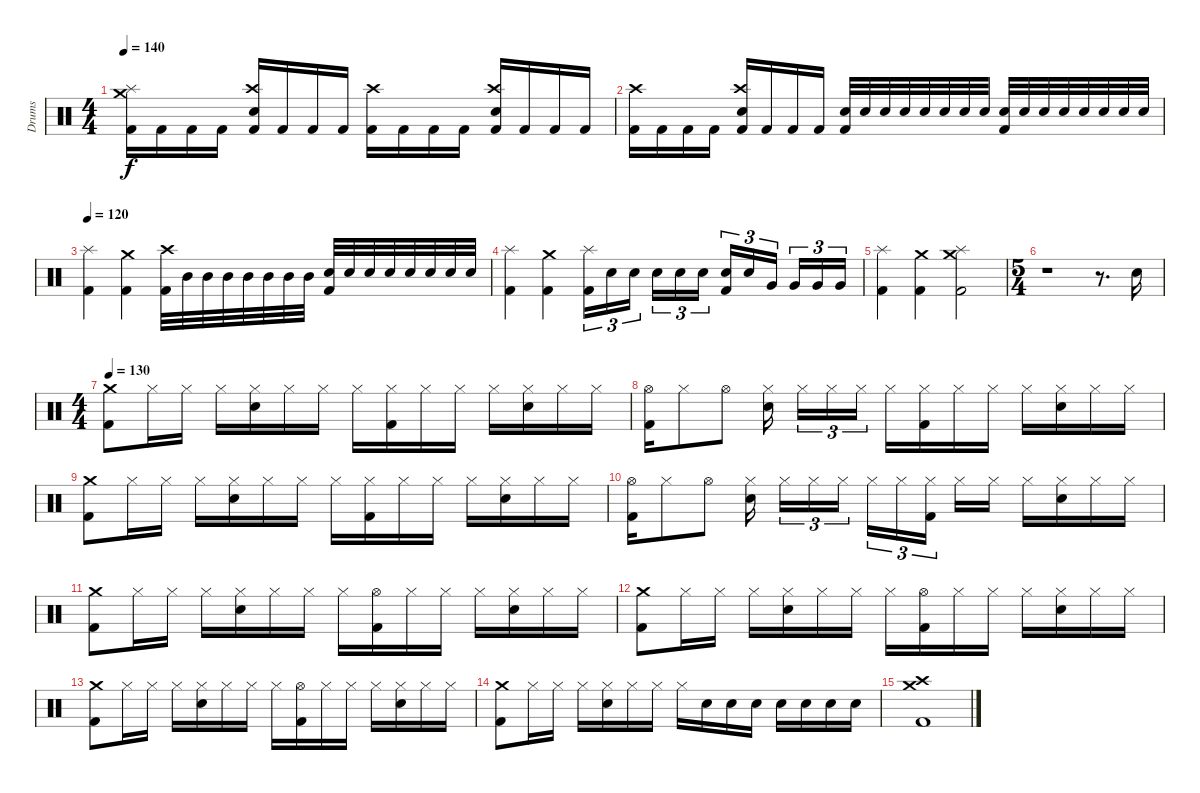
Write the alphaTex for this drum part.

\track ("Drums" "Drums") {instrument percussion}
\staff {score}
\articulation defaults
\ts (4 4)
\tempo 140
\clef neutral
\ks c
("Crash medium (hit)" "Splash (hit)" "Kick (hit) 2").16{dy f} "Kick (hit) 2".16 "Kick (hit) 2".16 "Kick (hit) 2".16 ("Crash high (hit)" "Electric Snare (hit)" "Kick (hit) 2").16 "Kick (hit) 2".16 "Kick (hit) 2".16 "Kick (hit) 2".16 ("Crash high (hit)" "Kick (hit) 2").16 "Kick (hit) 2".16 "Kick (hit) 2".16 "Kick (hit) 2".16 ("Crash high (hit)" "Electric Snare (hit)" "Kick (hit) 2").16 "Kick (hit) 2".16 "Kick (hit) 2".16 "Kick (hit) 2".16 |
("Crash high (hit)" "Kick (hit) 2").16 "Kick (hit) 2".16 "Kick (hit) 2".16 "Kick (hit) 2".16 ("Crash high (hit)" "Electric Snare (hit)" "Kick (hit) 2").16 "Kick (hit) 2".16 "Kick (hit) 2".16 "Kick (hit) 2".16 ("Electric Snare (hit)" "Kick (hit) 2").32 "Electric Snare (hit)".32 "Electric Snare (hit)".32 "Electric Snare (hit)".32 "Electric Snare (hit)".32 "Electric Snare (hit)".32 "Electric Snare (hit)".32 "Electric Snare (hit)".32 ("Electric Snare (hit)" "Kick (hit) 2").32 "Electric Snare (hit)".32 "Electric Snare (hit)".32 "Electric Snare (hit)".32 "Electric Snare (hit)".32 "Electric Snare (hit)".32 "Electric Snare (hit)".32 "Electric Snare (hit)".32 |
\tempo 120
("Splash (hit)" "Kick (hit) 2").4 ("Crash medium (hit)" "Kick (hit) 2").4 ("Crash high (hit)" "Kick (hit) 2").32 "Mid Tom (hit)".32 "Mid Tom (hit)".32 "Mid Tom (hit)".32 "Mid Tom (hit)".32 "Mid Tom (hit)".32 "Mid Tom (hit)".32 "Mid Tom (hit)".32 ("Electric Snare (hit)" "Kick (hit) 2").32 "Electric Snare (hit)".32 "Electric Snare (hit)".32 "Electric Snare (hit)".32 "Electric Snare (hit)".32 "Electric Snare (hit)".32 "Electric Snare (hit)".32 "Electric Snare (hit)".32 |
("Splash (hit)" "Kick (hit) 2").4 ("Crash medium (hit)" "Kick (hit) 2").4 ("Splash (hit)" "Kick (hit) 2").16{tu (3 2)} "Electric Snare (hit)".16{tu (3 2)} "Electric Snare (hit)".16{tu (3 2) beam splitsecondary} "Electric Snare (hit)".16{tu (3 2)} "Electric Snare (hit)".16{tu (3 2)} "Electric Snare (hit)".16{tu (3 2)} ("Electric Snare (hit)" "Kick (hit) 2").16{tu (3 2)} "Electric Snare (hit)".16{tu (3 2)} "Very Low Tom (hit)".16{tu (3 2) beam splitsecondary} "Very Low Tom (hit)".16{tu (3 2)} "Very Low Tom (hit)".16{tu (3 2)} "Very Low Tom (hit)".16{tu (3 2)} |
("Splash (hit)" "Kick (hit) 2").4 ("Crash medium (hit)" "Kick (hit) 2").4 ("Crash medium (hit)" "Splash (hit)" "Kick (hit) 2").2 |
\ts (5 4)
r.1 r.8{d} "Electric Snare (hit)".16 |
\ts (4 4)
\tempo 130
("Crash medium (hit)" "Kick (hit) 2").8 "Hi-Hat (closed)".16 "Hi-Hat (closed)".16 "Hi-Hat (closed)".16 ("Hi-Hat (closed)" "Electric Snare (hit)").16 "Hi-Hat (closed)".16 "Hi-Hat (closed)".16 "Hi-Hat (closed)".16 ("Hi-Hat (closed)" "Kick (hit) 2").16 "Hi-Hat (closed)".16 "Hi-Hat (closed)".16 "Hi-Hat (closed)".16 ("Hi-Hat (closed)" "Electric Snare (hit)").16 "Hi-Hat (closed)".16 "Hi-Hat (closed)".16 |
("Hi-Hat (open)" "Kick (hit) 2").16 "Hi-Hat (closed)".8 "Hi-Hat (open)".8 ("Hi-Hat (closed)" "Electric Snare (hit)").16{beam splitsecondary} "Hi-Hat (closed)".16{tu (3 2)} "Hi-Hat (closed)".16{tu (3 2)} "Hi-Hat (closed)".16{tu (3 2)} "Hi-Hat (closed)".16 ("Hi-Hat (closed)" "Kick (hit) 2").16 "Hi-Hat (closed)".16 "Hi-Hat (closed)".16 "Hi-Hat (closed)".16 ("Hi-Hat (closed)" "Electric Snare (hit)").16 "Hi-Hat (closed)".16 "Hi-Hat (closed)".16 |
("Crash medium (hit)" "Kick (hit) 2").8 "Hi-Hat (closed)".16 "Hi-Hat (closed)".16 "Hi-Hat (closed)".16 ("Hi-Hat (closed)" "Electric Snare (hit)").16 "Hi-Hat (closed)".16 "Hi-Hat (closed)".16 "Hi-Hat (closed)".16 ("Hi-Hat (closed)" "Kick (hit) 2").16 "Hi-Hat (closed)".16 "Hi-Hat (closed)".16 "Hi-Hat (closed)".16 ("Hi-Hat (closed)" "Electric Snare (hit)").16 "Hi-Hat (closed)".16 "Hi-Hat (closed)".16 |
("Hi-Hat (open)" "Kick (hit) 2").16 "Hi-Hat (closed)".8 "Hi-Hat (open)".8 ("Hi-Hat (closed)" "Electric Snare (hit)").16{beam splitsecondary} "Hi-Hat (closed)".16{tu (3 2)} "Hi-Hat (closed)".16{tu (3 2)} "Hi-Hat (closed)".16{tu (3 2)} "Hi-Hat (closed)".16{tu (3 2)} "Hi-Hat (closed)".16{tu (3 2)} ("Hi-Hat (closed)" "Kick (hit) 2").16{tu (3 2) beam splitsecondary} "Hi-Hat (closed)".16 "Hi-Hat (closed)".16 "Hi-Hat (closed)".16 ("Hi-Hat (closed)" "Electric Snare (hit)").16 "Hi-Hat (closed)".16 "Hi-Hat (closed)".16 |
("Crash medium (hit)" "Kick (hit) 2").8 "Hi-Hat (closed)".16 "Hi-Hat (closed)".16 "Hi-Hat (closed)".16 ("Hi-Hat (closed)" "Electric Snare (hit)").16 "Hi-Hat (closed)".16 "Hi-Hat (closed)".16 "Hi-Hat (closed)".16 ("Hi-Hat (open)" "Kick (hit) 2").16 "Hi-Hat (closed)".16 "Hi-Hat (closed)".16 "Hi-Hat (closed)".16 ("Hi-Hat (closed)" "Electric Snare (hit)").16 "Hi-Hat (closed)".16 "Hi-Hat (closed)".16 |
("Crash medium (hit)" "Kick (hit) 2").8 "Hi-Hat (closed)".16 "Hi-Hat (closed)".16 "Hi-Hat (closed)".16 ("Hi-Hat (closed)" "Electric Snare (hit)").16 "Hi-Hat (closed)".16 "Hi-Hat (closed)".16 "Hi-Hat (closed)".16 ("Hi-Hat (open)" "Kick (hit) 2").16 "Hi-Hat (closed)".16 "Hi-Hat (closed)".16 "Hi-Hat (closed)".16 ("Hi-Hat (closed)" "Electric Snare (hit)").16 "Hi-Hat (closed)".16 "Hi-Hat (closed)".16 |
("Crash medium (hit)" "Kick (hit) 2").8 "Hi-Hat (closed)".16 "Hi-Hat (closed)".16 "Hi-Hat (closed)".16 ("Hi-Hat (closed)" "Electric Snare (hit)").16 "Hi-Hat (closed)".16 "Hi-Hat (closed)".16 "Hi-Hat (closed)".16 ("Hi-Hat (open)" "Kick (hit) 2").16 "Hi-Hat (closed)".16 "Hi-Hat (closed)".16 "Hi-Hat (closed)".16 ("Hi-Hat (closed)" "Electric Snare (hit)").16 "Hi-Hat (closed)".16 "Hi-Hat (closed)".16 |
("Crash medium (hit)" "Kick (hit) 2").8 "Hi-Hat (closed)".16 "Hi-Hat (closed)".16 "Hi-Hat (closed)".16 ("Hi-Hat (closed)" "Electric Snare (hit)").16 "Hi-Hat (closed)".16 "Hi-Hat (closed)".16 "Hi-Hat (closed)".16 "Electric Snare (hit)".16 "Electric Snare (hit)".16 "Electric Snare (hit)".16 "Electric Snare (hit)".16 "Electric Snare (hit)".16 "Electric Snare (hit)".16 "Electric Snare (hit)".16 |
("Crash medium (hit)" "Crash high (hit)" "Kick (hit) 2").1
